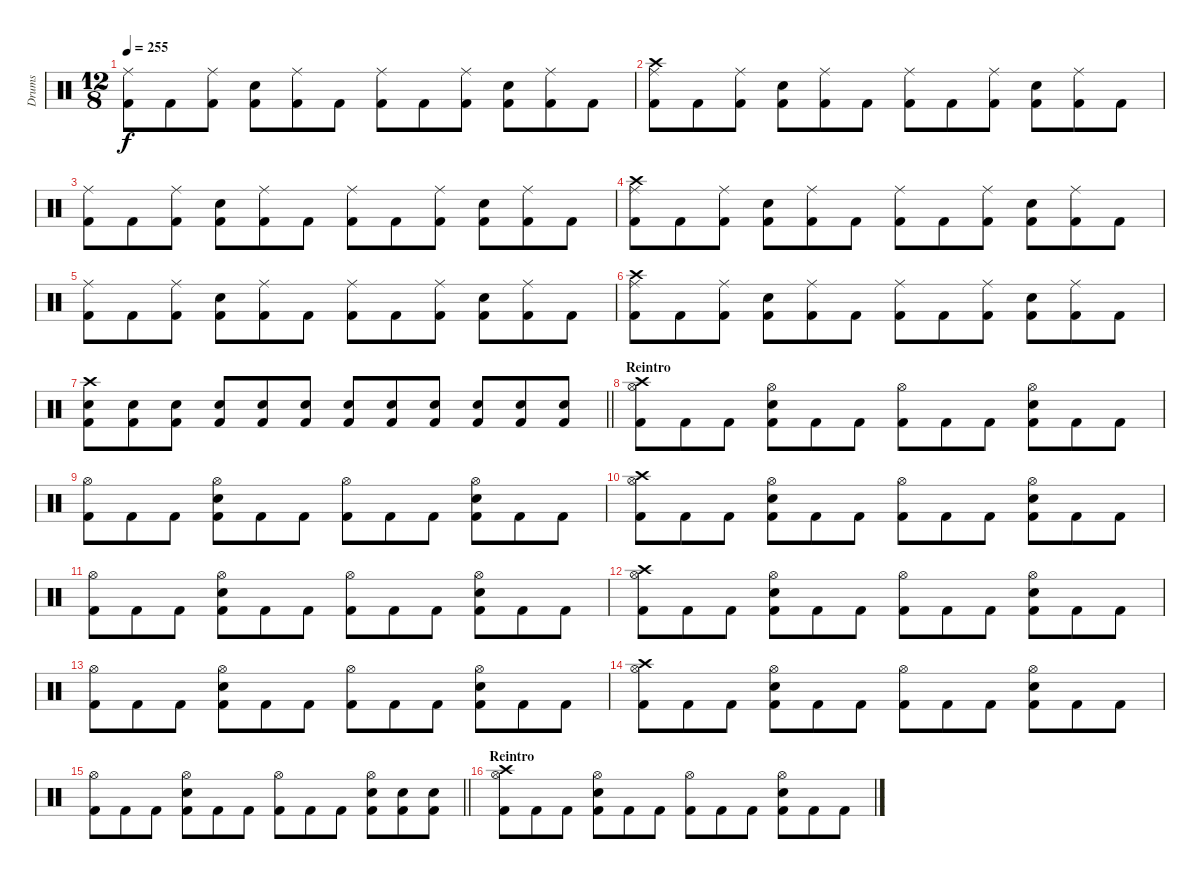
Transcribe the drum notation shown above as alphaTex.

\track ("Drums" "Drums") {instrument percussion}
\staff {score}
\articulation defaults
\ts (12 8)
\tempo 255
\clef neutral
\ks c
("Ride (middle)" "Kick (hit) 2").8{dy f} "Kick (hit) 2".8 ("Ride (middle)" "Kick (hit) 2").8 ("Snare (hit) 2" "Kick (hit) 2").8 ("Ride (middle)" "Kick (hit) 2").8 "Kick (hit) 2".8 ("Ride (middle)" "Kick (hit) 2").8 "Kick (hit) 2".8 ("Ride (middle)" "Kick (hit) 2").8 ("Snare (hit) 2" "Kick (hit) 2").8 ("Ride (middle)" "Kick (hit) 2").8 "Kick (hit) 2".8 |
("Crash high (hit)" "Ride (middle)" "Kick (hit) 2").8 "Kick (hit) 2".8 ("Ride (middle)" "Kick (hit) 2").8 ("Snare (hit) 2" "Kick (hit) 2").8 ("Ride (middle)" "Kick (hit) 2").8 "Kick (hit) 2".8 ("Ride (middle)" "Kick (hit) 2").8 "Kick (hit) 2".8 ("Ride (middle)" "Kick (hit) 2").8 ("Snare (hit) 2" "Kick (hit) 2").8 ("Ride (middle)" "Kick (hit) 2").8 "Kick (hit) 2".8 |
("Ride (middle)" "Kick (hit) 2").8 "Kick (hit) 2".8 ("Ride (middle)" "Kick (hit) 2").8 ("Snare (hit) 2" "Kick (hit) 2").8 ("Ride (middle)" "Kick (hit) 2").8 "Kick (hit) 2".8 ("Ride (middle)" "Kick (hit) 2").8 "Kick (hit) 2".8 ("Ride (middle)" "Kick (hit) 2").8 ("Snare (hit) 2" "Kick (hit) 2").8 ("Ride (middle)" "Kick (hit) 2").8 "Kick (hit) 2".8 |
("Crash high (hit)" "Ride (middle)" "Kick (hit) 2").8 "Kick (hit) 2".8 ("Ride (middle)" "Kick (hit) 2").8 ("Snare (hit) 2" "Kick (hit) 2").8 ("Ride (middle)" "Kick (hit) 2").8 "Kick (hit) 2".8 ("Ride (middle)" "Kick (hit) 2").8 "Kick (hit) 2".8 ("Ride (middle)" "Kick (hit) 2").8 ("Snare (hit) 2" "Kick (hit) 2").8 ("Ride (middle)" "Kick (hit) 2").8 "Kick (hit) 2".8 |
("Ride (middle)" "Kick (hit) 2").8 "Kick (hit) 2".8 ("Ride (middle)" "Kick (hit) 2").8 ("Snare (hit) 2" "Kick (hit) 2").8 ("Ride (middle)" "Kick (hit) 2").8 "Kick (hit) 2".8 ("Ride (middle)" "Kick (hit) 2").8 "Kick (hit) 2".8 ("Ride (middle)" "Kick (hit) 2").8 ("Snare (hit) 2" "Kick (hit) 2").8 ("Ride (middle)" "Kick (hit) 2").8 "Kick (hit) 2".8 |
("Crash high (hit)" "Ride (middle)" "Kick (hit) 2").8 "Kick (hit) 2".8 ("Ride (middle)" "Kick (hit) 2").8 ("Snare (hit) 2" "Kick (hit) 2").8 ("Ride (middle)" "Kick (hit) 2").8 "Kick (hit) 2".8 ("Ride (middle)" "Kick (hit) 2").8 "Kick (hit) 2".8 ("Ride (middle)" "Kick (hit) 2").8 ("Snare (hit) 2" "Kick (hit) 2").8 ("Ride (middle)" "Kick (hit) 2").8 "Kick (hit) 2".8 |
\barLineRight lightlight
("Crash high (hit)" "Snare (hit) 2" "Kick (hit) 2").8 ("Snare (hit) 2" "Kick (hit) 2").8 ("Snare (hit) 2" "Kick (hit) 2").8 ("Snare (hit) 2" "Kick (hit) 2").8 ("Snare (hit) 2" "Kick (hit) 2").8 ("Snare (hit) 2" "Kick (hit) 2").8 ("Snare (hit) 2" "Kick (hit) 2").8 ("Snare (hit) 2" "Kick (hit) 2").8 ("Snare (hit) 2" "Kick (hit) 2").8 ("Snare (hit) 2" "Kick (hit) 2").8 ("Snare (hit) 2" "Kick (hit) 2").8 ("Snare (hit) 2" "Kick (hit) 2").8 |
\section ("" "Reintro")
("Crash high (hit)" "Hi-Hat (open)" "Kick (hit) 2").8 "Kick (hit) 2".8 "Kick (hit) 2".8 ("Hi-Hat (open)" "Snare (hit) 2" "Kick (hit) 2").8 "Kick (hit) 2".8 "Kick (hit) 2".8 ("Hi-Hat (open)" "Kick (hit) 2").8 "Kick (hit) 2".8 "Kick (hit) 2".8 ("Hi-Hat (open)" "Snare (hit) 2" "Kick (hit) 2").8 "Kick (hit) 2".8 "Kick (hit) 2".8 |
("Hi-Hat (open)" "Kick (hit) 2").8 "Kick (hit) 2".8 "Kick (hit) 2".8 ("Hi-Hat (open)" "Snare (hit) 2" "Kick (hit) 2").8 "Kick (hit) 2".8 "Kick (hit) 2".8 ("Hi-Hat (open)" "Kick (hit) 2").8 "Kick (hit) 2".8 "Kick (hit) 2".8 ("Hi-Hat (open)" "Snare (hit) 2" "Kick (hit) 2").8 "Kick (hit) 2".8 "Kick (hit) 2".8 |
("Crash high (hit)" "Hi-Hat (open)" "Kick (hit) 2").8 "Kick (hit) 2".8 "Kick (hit) 2".8 ("Hi-Hat (open)" "Snare (hit) 2" "Kick (hit) 2").8 "Kick (hit) 2".8 "Kick (hit) 2".8 ("Hi-Hat (open)" "Kick (hit) 2").8 "Kick (hit) 2".8 "Kick (hit) 2".8 ("Hi-Hat (open)" "Snare (hit) 2" "Kick (hit) 2").8 "Kick (hit) 2".8 "Kick (hit) 2".8 |
("Hi-Hat (open)" "Kick (hit) 2").8 "Kick (hit) 2".8 "Kick (hit) 2".8 ("Hi-Hat (open)" "Snare (hit) 2" "Kick (hit) 2").8 "Kick (hit) 2".8 "Kick (hit) 2".8 ("Hi-Hat (open)" "Kick (hit) 2").8 "Kick (hit) 2".8 "Kick (hit) 2".8 ("Hi-Hat (open)" "Snare (hit) 2" "Kick (hit) 2").8 "Kick (hit) 2".8 "Kick (hit) 2".8 |
("Crash high (hit)" "Hi-Hat (open)" "Kick (hit) 2").8 "Kick (hit) 2".8 "Kick (hit) 2".8 ("Hi-Hat (open)" "Snare (hit) 2" "Kick (hit) 2").8 "Kick (hit) 2".8 "Kick (hit) 2".8 ("Hi-Hat (open)" "Kick (hit) 2").8 "Kick (hit) 2".8 "Kick (hit) 2".8 ("Hi-Hat (open)" "Snare (hit) 2" "Kick (hit) 2").8 "Kick (hit) 2".8 "Kick (hit) 2".8 |
("Hi-Hat (open)" "Kick (hit) 2").8 "Kick (hit) 2".8 "Kick (hit) 2".8 ("Hi-Hat (open)" "Snare (hit) 2" "Kick (hit) 2").8 "Kick (hit) 2".8 "Kick (hit) 2".8 ("Hi-Hat (open)" "Kick (hit) 2").8 "Kick (hit) 2".8 "Kick (hit) 2".8 ("Hi-Hat (open)" "Snare (hit) 2" "Kick (hit) 2").8 "Kick (hit) 2".8 "Kick (hit) 2".8 |
("Crash high (hit)" "Hi-Hat (open)" "Kick (hit) 2").8 "Kick (hit) 2".8 "Kick (hit) 2".8 ("Hi-Hat (open)" "Snare (hit) 2" "Kick (hit) 2").8 "Kick (hit) 2".8 "Kick (hit) 2".8 ("Hi-Hat (open)" "Kick (hit) 2").8 "Kick (hit) 2".8 "Kick (hit) 2".8 ("Hi-Hat (open)" "Snare (hit) 2" "Kick (hit) 2").8 "Kick (hit) 2".8 "Kick (hit) 2".8 |
\barLineRight lightlight
("Hi-Hat (open)" "Kick (hit) 2").8 "Kick (hit) 2".8 "Kick (hit) 2".8 ("Hi-Hat (open)" "Snare (hit) 2" "Kick (hit) 2").8 "Kick (hit) 2".8 "Kick (hit) 2".8 ("Hi-Hat (open)" "Kick (hit) 2").8 "Kick (hit) 2".8 "Kick (hit) 2".8 ("Hi-Hat (open)" "Snare (hit) 2" "Kick (hit) 2").8 ("Snare (hit) 2" "Kick (hit) 2").8 ("Snare (hit) 2" "Kick (hit) 2").8 |
\section ("" "Reintro")
("Crash high (hit)" "Hi-Hat (open)" "Kick (hit) 2").8 "Kick (hit) 2".8 "Kick (hit) 2".8 ("Hi-Hat (open)" "Snare (hit) 2" "Kick (hit) 2").8 "Kick (hit) 2".8 "Kick (hit) 2".8 ("Hi-Hat (open)" "Kick (hit) 2").8 "Kick (hit) 2".8 "Kick (hit) 2".8 ("Hi-Hat (open)" "Snare (hit) 2" "Kick (hit) 2").8 "Kick (hit) 2".8 "Kick (hit) 2".8
